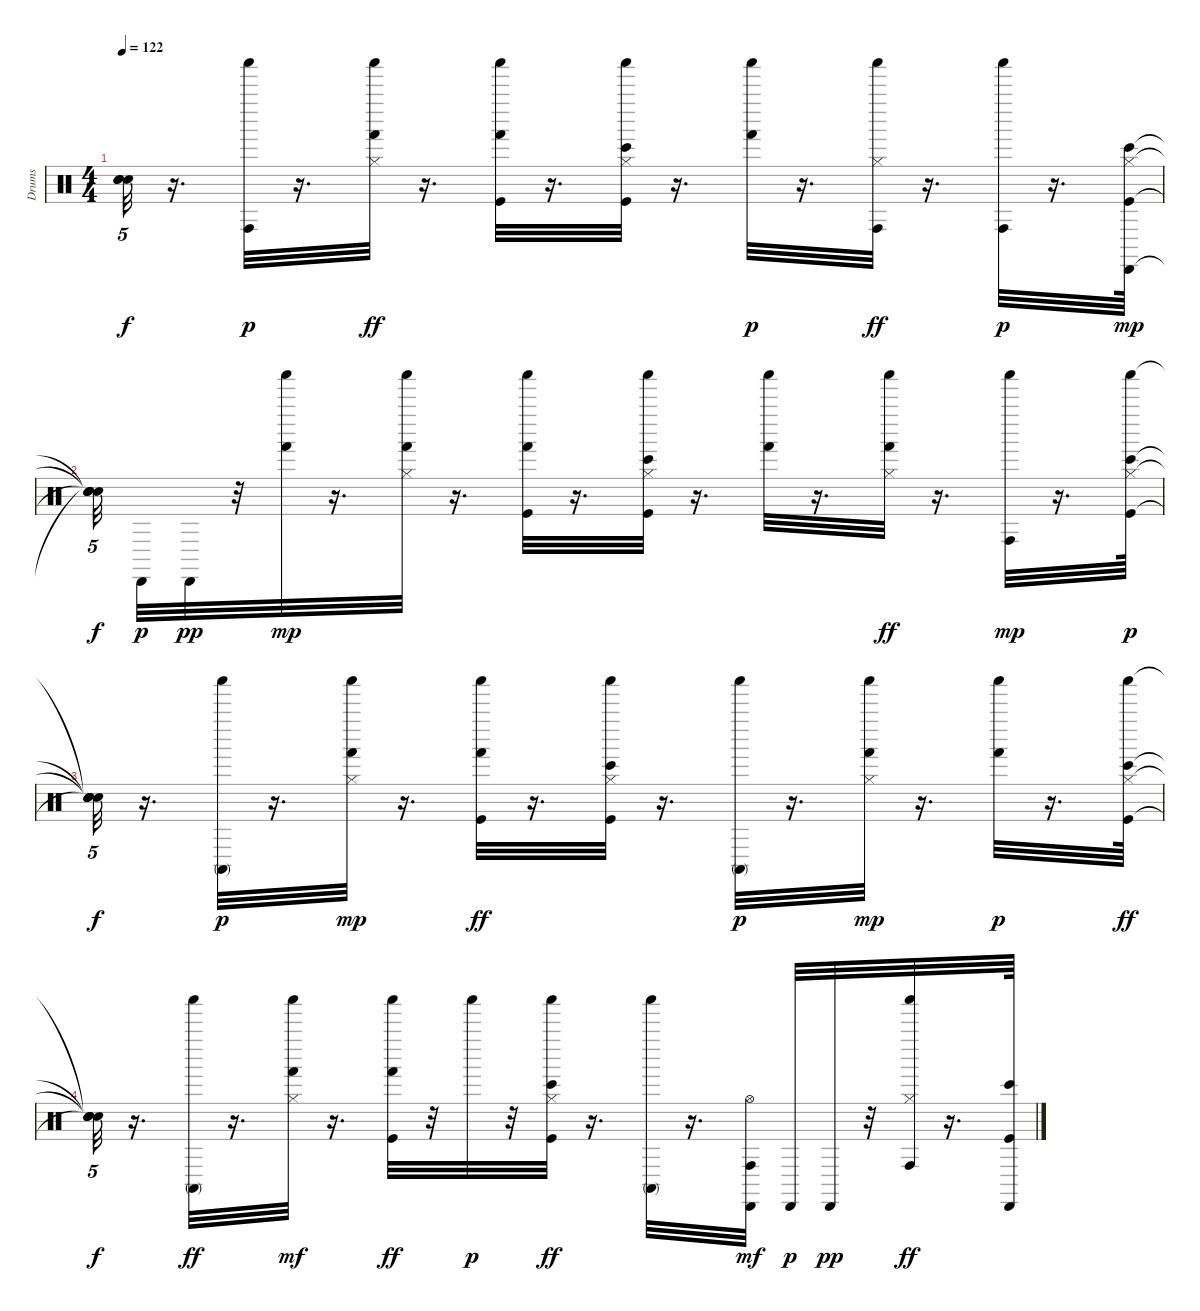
\track ("Drums" "Drums") {instrument percussion}
\staff {score}
\articulation defaults
\ts (4 4)
\tempo 122
\clef neutral
\ks c
("Snare (hit)"{t} "Snare (hit)"{t} "Snare (hit)"{t}).32{tu (5 4) dy f} r.16{d} ("Conga high (hit)" "Shaker (hit)").32{dy p} r.16{d} ("Shaker (hit)" "Hi-Hat (closed)" "Hand (hit)").32{dy ff} r.16{d} ("Shaker (hit)" "Kick (hit)" "Hand (hit)").32 r.16{d} ("Shaker (hit)" "Kick (hit)" "Hi-Hat (closed)" "Bongo High (hit)").32 r.16{d} ("Shaker (hit)" "Hand (hit)").32{dy p} r.16{d} ("Shaker (hit)" "Hi-Hat (closed)" "Conga high (hit)").32{dy ff} r.16{d} ("Shaker (hit)" "Conga high (hit)").32{dy p} r.16{d} ("Kick (hit)" "Hi-Hat (closed)" "Bongo High (hit)" "Cabasa (hit)").64{dy mp} |
("Snare (hit)"{t} "Snare (hit)"{t} "Snare (hit)"{t} "Snare (hit)"{t}).32{tu (5 4) dy f beam splitsecondary} "Cabasa (hit)".32{dy p} "Cabasa (hit)".32{dy pp} r.32 ("Shaker (hit)" "Hand (hit)").32{dy mp} r.16{d} ("Shaker (hit)" "Hi-Hat (closed)" "Hand (hit)").32 r.16{d} ("Shaker (hit)" "Kick (hit)" "Hand (hit)").32 r.16{d} ("Bongo High (hit)" "Shaker (hit)" "Kick (hit)" "Hi-Hat (closed)").32 r.16{d} ("Shaker (hit)" "Hand (hit)").32 r.16{d} ("Shaker (hit)" "Hi-Hat (closed)" "Hand (hit)").32{dy ff} r.16{d} ("Shaker (hit)" "Conga high (hit)").32{dy mp} r.16{d} ("Kick (hit)" "Hi-Hat (closed)" "Bongo High (hit)" "Shaker (hit)").64{dy p} |
("Snare (hit)"{t} "Snare (hit)"{t} "Snare (hit)"{t} "Snare (hit)"{t}).32{tu (5 4) dy f} r.16{d} ("Conga high (mute)" "Shaker (hit)").32{dy p} r.16{d} ("Shaker (hit)" "Hi-Hat (closed)" "Hand (hit)").32{dy mp} r.16{d} ("Shaker (hit)" "Kick (hit)" "Hand (hit)").32{dy ff} r.16{d} ("Shaker (hit)" "Kick (hit)" "Hi-Hat (closed)" "Bongo High (hit)").32 r.16{d} ("Shaker (hit)" "Conga high (mute)").32{dy p} r.16{d} ("Hi-Hat (closed)" "Hand (hit)" "Shaker (hit)").32{dy mp} r.16{d} ("Shaker (hit)" "Hand (hit)").32{dy p} r.16{d} ("Shaker (hit)" "Kick (hit)" "Hi-Hat (closed)" "Bongo High (hit)").64{dy ff} |
("Snare (hit)"{t} "Snare (hit)"{t} "Snare (hit)"{t} "Snare (hit)"{t}).32{tu (5 4) dy f} r.16{d} ("Shaker (hit)" "Conga high (mute)").32{dy ff} r.16{d} ("Hi-Hat (closed)" "Shaker (hit)" "Hand (hit)").32{dy mf} r.16{d} ("Shaker (hit)" "Kick (hit)" "Hand (hit)").32{dy ff} r.32 "Shaker (hit)".32{dy p} r.32 ("Shaker (hit)" "Kick (hit)" "Hi-Hat (closed)" "Bongo High (hit)").32{dy ff} r.16{d} ("Shaker (hit)" "Conga high (mute)").32 r.16{d} ("Hi-Hat (open)" "Conga high (hit)" "Cabasa (hit)").32{dy mf} "Cabasa (hit)".32{dy p} "Cabasa (hit)".32{dy pp} r.32 ("Shaker (hit)" "Hi-Hat (closed)" "Conga high (hit)").32{dy ff} r.16{d} ("Bongo High (hit)" "Kick (hit)" "Cabasa (hit)").64
